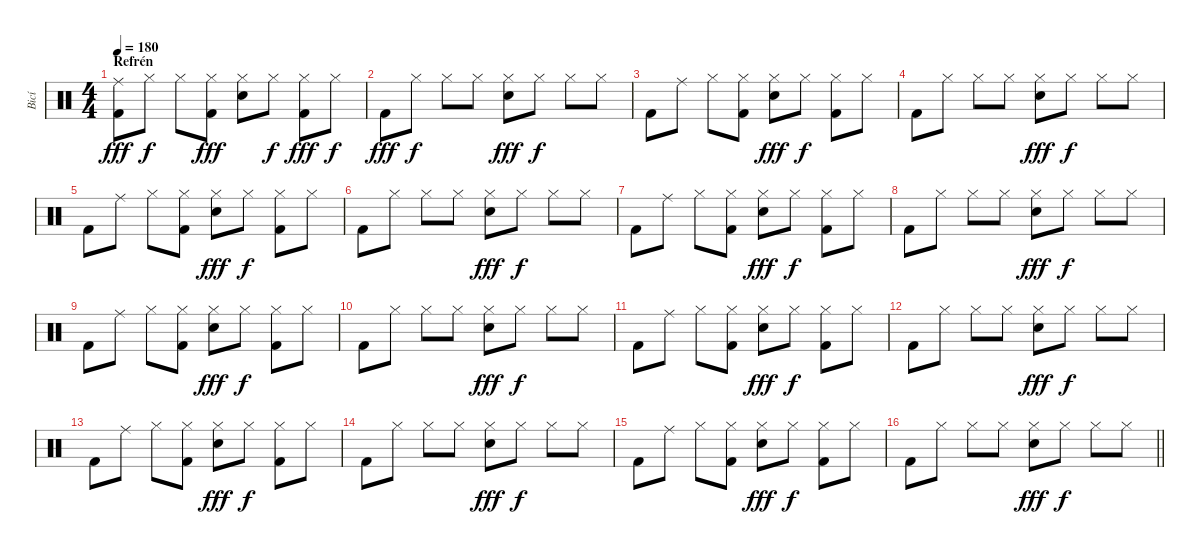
\track ("Bicí" "Bicí") {instrument percussion}
\staff {score}
\articulation defaults
\ts (4 4)
\section ("" "Refrén")
\tempo 180
\clef neutral
\ks c
("Kick (hit) 2" "Ride (middle)").8{dy fff} "Hi-Hat (closed)".8{dy f} "Hi-Hat (closed)".8 ("Kick (hit) 2" "Hi-Hat (closed)").8{dy fff} ("Hand Clap (hit)" "Hi-Hat (closed)").8 "Hi-Hat (closed)".8{dy f} ("Kick (hit) 2" "Hi-Hat (closed)").8{dy fff} "Hi-Hat (closed)".8{dy f} |
"Kick (hit) 2".8{dy fff} "Hi-Hat (closed)".8{dy f} "Hi-Hat (closed)".8 "Hi-Hat (closed)".8 ("Hand Clap (hit)" "Hi-Hat (closed)").8{dy fff} "Hi-Hat (closed)".8{dy f} "Hi-Hat (closed)".8 "Hi-Hat (closed)".8 |
"Kick (hit) 2".8 "Ride (middle)".8 "Hi-Hat (closed)".8 ("Kick (hit) 2" "Hi-Hat (closed)").8 ("Hand Clap (hit)" "Hi-Hat (closed)").8{dy fff} "Hi-Hat (closed)".8{dy f} ("Kick (hit) 2" "Hi-Hat (closed)").8 "Hi-Hat (closed)".8 |
"Kick (hit) 2".8 "Hi-Hat (closed)".8 "Hi-Hat (closed)".8 "Hi-Hat (closed)".8 ("Hand Clap (hit)" "Hi-Hat (closed)").8{dy fff} "Hi-Hat (closed)".8{dy f} "Hi-Hat (closed)".8 "Hi-Hat (closed)".8 |
"Kick (hit) 2".8 "Ride (middle)".8 "Hi-Hat (closed)".8 ("Kick (hit) 2" "Hi-Hat (closed)").8 ("Hand Clap (hit)" "Hi-Hat (closed)").8{dy fff} "Hi-Hat (closed)".8{dy f} ("Kick (hit) 2" "Hi-Hat (closed)").8 "Hi-Hat (closed)".8 |
"Kick (hit) 2".8 "Hi-Hat (closed)".8 "Hi-Hat (closed)".8 "Hi-Hat (closed)".8 ("Hand Clap (hit)" "Hi-Hat (closed)").8{dy fff} "Hi-Hat (closed)".8{dy f} "Hi-Hat (closed)".8 "Hi-Hat (closed)".8 |
"Kick (hit) 2".8 "Ride (middle)".8 "Hi-Hat (closed)".8 ("Kick (hit) 2" "Hi-Hat (closed)").8 ("Hand Clap (hit)" "Hi-Hat (closed)").8{dy fff} "Hi-Hat (closed)".8{dy f} ("Kick (hit) 2" "Hi-Hat (closed)").8 "Hi-Hat (closed)".8 |
"Kick (hit) 2".8 "Hi-Hat (closed)".8 "Hi-Hat (closed)".8 "Hi-Hat (closed)".8 ("Hand Clap (hit)" "Hi-Hat (closed)").8{dy fff} "Hi-Hat (closed)".8{dy f} "Hi-Hat (closed)".8 "Hi-Hat (closed)".8 |
"Kick (hit) 2".8 "Ride (middle)".8 "Hi-Hat (closed)".8 ("Kick (hit) 2" "Hi-Hat (closed)").8 ("Hand Clap (hit)" "Hi-Hat (closed)").8{dy fff} "Hi-Hat (closed)".8{dy f} ("Kick (hit) 2" "Hi-Hat (closed)").8 "Hi-Hat (closed)".8 |
"Kick (hit) 2".8 "Hi-Hat (closed)".8 "Hi-Hat (closed)".8 "Hi-Hat (closed)".8 ("Hand Clap (hit)" "Hi-Hat (closed)").8{dy fff} "Hi-Hat (closed)".8{dy f} "Hi-Hat (closed)".8 "Hi-Hat (closed)".8 |
"Kick (hit) 2".8 "Ride (middle)".8 "Hi-Hat (closed)".8 ("Kick (hit) 2" "Hi-Hat (closed)").8 ("Hand Clap (hit)" "Hi-Hat (closed)").8{dy fff} "Hi-Hat (closed)".8{dy f} ("Kick (hit) 2" "Hi-Hat (closed)").8 "Hi-Hat (closed)".8 |
"Kick (hit) 2".8 "Hi-Hat (closed)".8 "Hi-Hat (closed)".8 "Hi-Hat (closed)".8 ("Hand Clap (hit)" "Hi-Hat (closed)").8{dy fff} "Hi-Hat (closed)".8{dy f} "Hi-Hat (closed)".8 "Hi-Hat (closed)".8 |
"Kick (hit) 2".8 "Ride (middle)".8 "Hi-Hat (closed)".8 ("Kick (hit) 2" "Hi-Hat (closed)").8 ("Hand Clap (hit)" "Hi-Hat (closed)").8{dy fff} "Hi-Hat (closed)".8{dy f} ("Kick (hit) 2" "Hi-Hat (closed)").8 "Hi-Hat (closed)".8 |
"Kick (hit) 2".8 "Hi-Hat (closed)".8 "Hi-Hat (closed)".8 "Hi-Hat (closed)".8 ("Hand Clap (hit)" "Hi-Hat (closed)").8{dy fff} "Hi-Hat (closed)".8{dy f} "Hi-Hat (closed)".8 "Hi-Hat (closed)".8 |
"Kick (hit) 2".8 "Ride (middle)".8 "Hi-Hat (closed)".8 ("Kick (hit) 2" "Hi-Hat (closed)").8 ("Hand Clap (hit)" "Hi-Hat (closed)").8{dy fff} "Hi-Hat (closed)".8{dy f} ("Kick (hit) 2" "Hi-Hat (closed)").8 "Hi-Hat (closed)".8 |
\barLineRight lightlight "Kick (hit) 2".8 "Hi-Hat (closed)".8 "Hi-Hat (closed)".8 "Hi-Hat (closed)".8
("Hand Clap (hit)" "Hi-Hat (closed)").8{dy fff} "Hi-Hat (closed)".8{dy f} "Hi-Hat (closed)".8 "Hi-Hat (closed)".8
